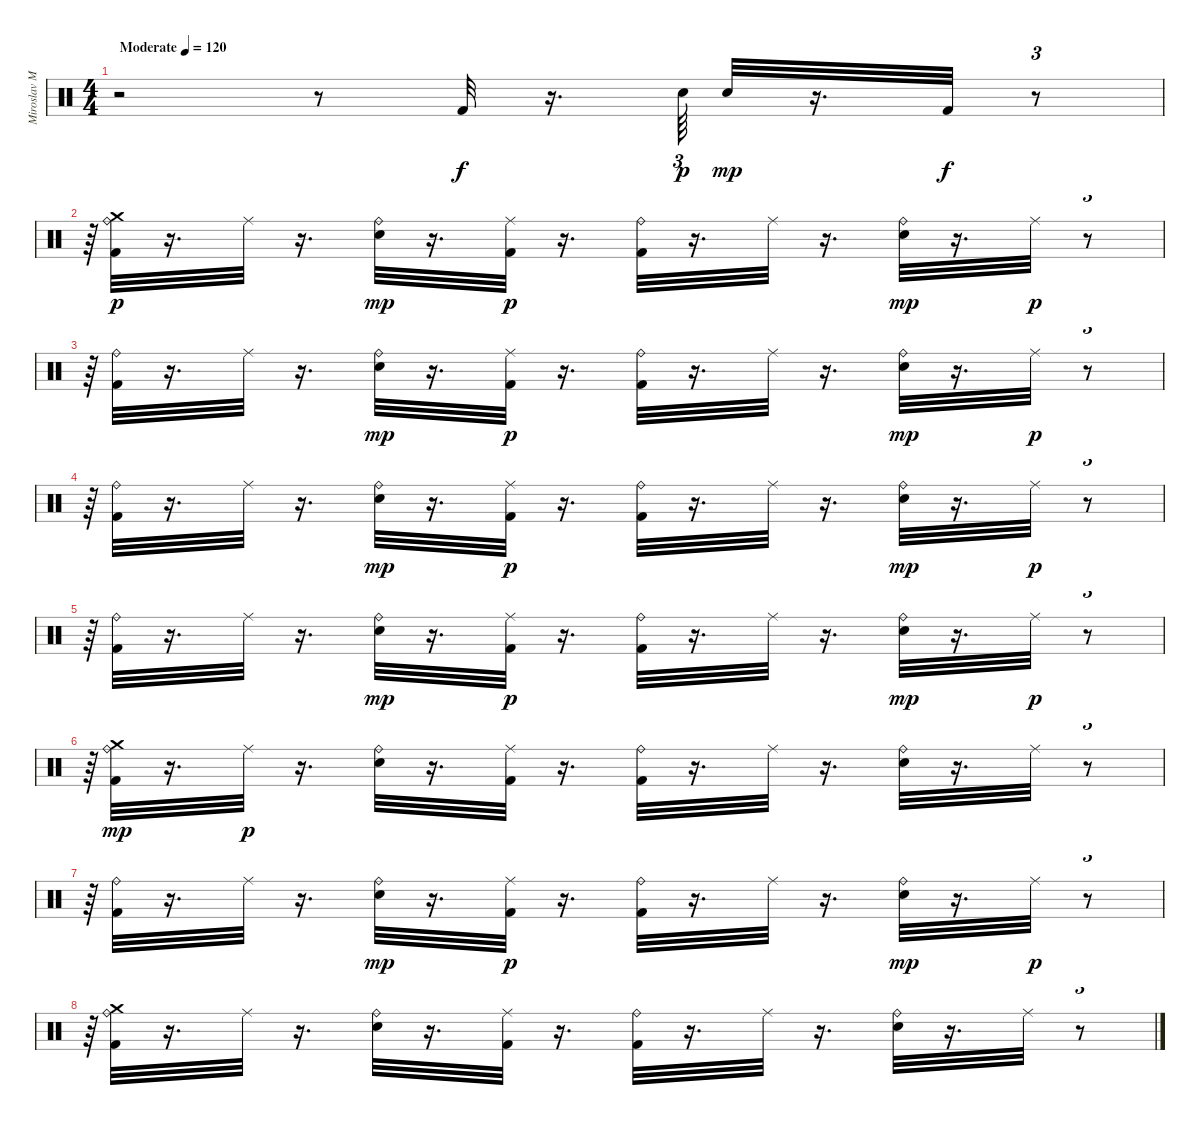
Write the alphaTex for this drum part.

\track ("Miroslav Milatovic-Vicko-bubnjevi" "Miroslav M") {instrument percussion}
\staff {score}
\articulation defaults
\ts (4 4)
\tempo (120 "Moderate")
\clef neutral
\ks c
r.2{dy f} r.8 "Kick (hit) 2".32 r.16{d} "Electric Snare (hit)".64{tu (3 2) dy p} "Electric Snare (hit)".32{dy mp} r.16{d} "Kick (hit) 2".32{dy f} r.8{tu (3 2)} |
r.64{tu (3 2)} ("Crash medium (hit)" "Ride (bell)" "Kick (hit) 2").32{dy p} r.16{d} "Ride (middle)".32 r.16{d} ("Ride (bell)" "Electric Snare (hit)").32{dy mp} r.16{d} ("Ride (middle)" "Kick (hit) 2").32{dy p} r.16{d} ("Ride (bell)" "Kick (hit) 2").32 r.16{d} "Ride (middle)".32 r.16{d} ("Ride (bell)" "Electric Snare (hit)").32{dy mp} r.16{d} "Ride (middle)".32{dy p} r.8{tu (3 2)} |
r.64{tu (3 2)} ("Kick (hit) 2" "Ride (bell)").32 r.16{d} "Ride (middle)".32 r.16{d} ("Electric Snare (hit)" "Ride (bell)").32{dy mp} r.16{d} ("Kick (hit) 2" "Ride (middle)").32{dy p} r.16{d} ("Kick (hit) 2" "Ride (bell)").32 r.16{d} "Ride (middle)".32 r.16{d} ("Electric Snare (hit)" "Ride (bell)").32{dy mp} r.16{d} "Ride (middle)".32{dy p} r.8{tu (3 2)} |
r.64{tu (3 2)} ("Ride (bell)" "Kick (hit) 2").32 r.16{d} "Ride (middle)".32 r.16{d} ("Ride (bell)" "Electric Snare (hit)").32{dy mp} r.16{d} ("Ride (middle)" "Kick (hit) 2").32{dy p} r.16{d} ("Ride (bell)" "Kick (hit) 2").32 r.16{d} "Ride (middle)".32 r.16{d} ("Ride (bell)" "Electric Snare (hit)").32{dy mp} r.16{d} "Ride (middle)".32{dy p} r.8{tu (3 2)} |
r.64{tu (3 2)} ("Ride (bell)" "Kick (hit) 2").32 r.16{d} "Ride (middle)".32 r.16{d} ("Ride (bell)" "Electric Snare (hit)").32{dy mp} r.16{d} ("Ride (middle)" "Kick (hit) 2").32{dy p} r.16{d} ("Ride (bell)" "Kick (hit) 2").32 r.16{d} "Ride (middle)".32 r.16{d} ("Ride (bell)" "Electric Snare (hit)").32{dy mp} r.16{d} "Ride (middle)".32{dy p} r.8{tu (3 2)} |
r.64{tu (3 2)} ("Kick (hit) 2" "Ride (bell)" "Crash medium (hit)").32{dy mp} r.16{d} "Ride (middle)".32{dy p} r.16{d} ("Electric Snare (hit)" "Ride (bell)").32 r.16{d} ("Kick (hit) 2" "Ride (middle)").32 r.16{d} ("Kick (hit) 2" "Ride (bell)").32 r.16{d} "Ride (middle)".32 r.16{d} ("Electric Snare (hit)" "Ride (bell)").32 r.16{d} "Ride (middle)".32 r.8{tu (3 2)} |
r.64{tu (3 2)} ("Ride (bell)" "Kick (hit) 2").32 r.16{d} "Ride (middle)".32 r.16{d} ("Ride (bell)" "Electric Snare (hit)").32{dy mp} r.16{d} ("Ride (middle)" "Kick (hit) 2").32{dy p} r.16{d} ("Ride (bell)" "Kick (hit) 2").32 r.16{d} "Ride (middle)".32 r.16{d} ("Ride (bell)" "Electric Snare (hit)").32{dy mp} r.16{d} "Ride (middle)".32{dy p} r.8{tu (3 2)} |
r.64{tu (3 2)} ("Crash medium (hit)" "Kick (hit) 2" "Ride (bell)").32 r.16{d} "Ride (middle)".32 r.16{d} ("Electric Snare (hit)" "Ride (bell)").32 r.16{d} ("Kick (hit) 2" "Ride (middle)").32 r.16{d} ("Kick (hit) 2" "Ride (bell)").32 r.16{d} "Ride (middle)".32 r.16{d} ("Electric Snare (hit)" "Ride (bell)").32 r.16{d} "Ride (middle)".32 r.8{tu (3 2)}
